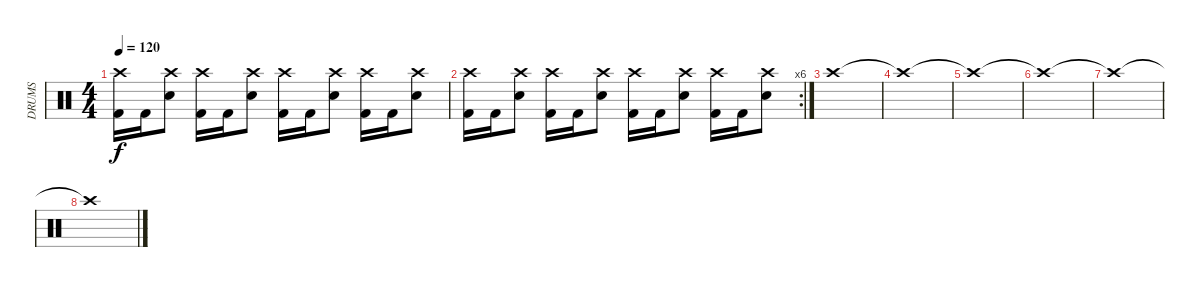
\track ("DRUMS" "DRUMS") {instrument percussion}
\staff {score}
\articulation defaults
\ts (4 4)
\tempo 120
\clef neutral
\ks c
("Crash high (hit)" "Kick (hit) 2").16{dy f} "Kick (hit) 2".16 ("Crash high (hit)" "Electric Snare (hit)").8 ("Crash high (hit)" "Kick (hit) 2").16 "Kick (hit) 2".16 ("Crash high (hit)" "Electric Snare (hit)").8 ("Crash high (hit)" "Kick (hit) 2").16 "Kick (hit) 2".16 ("Crash high (hit)" "Electric Snare (hit)").8 ("Crash high (hit)" "Kick (hit) 2").16 "Kick (hit) 2".16 ("Crash high (hit)" "Electric Snare (hit)").8 |
\rc 6
("Crash high (hit)" "Kick (hit) 2").16 "Kick (hit) 2".16 ("Crash high (hit)" "Electric Snare (hit)").8 ("Crash high (hit)" "Kick (hit) 2").16 "Kick (hit) 2".16 ("Crash high (hit)" "Electric Snare (hit)").8 ("Crash high (hit)" "Kick (hit) 2").16 "Kick (hit) 2".16 ("Crash high (hit)" "Electric Snare (hit)").8 ("Crash high (hit)" "Kick (hit) 2").16 "Kick (hit) 2".16 ("Crash high (hit)" "Electric Snare (hit)").8 |
"Crash high (hit)".1 |
"Crash high (hit)"{t}.1 |
"Crash high (hit)"{t}.1 |
"Crash high (hit)"{t}.1 |
"Crash high (hit)"{t}.1 |
"Crash high (hit)"{t}.1
